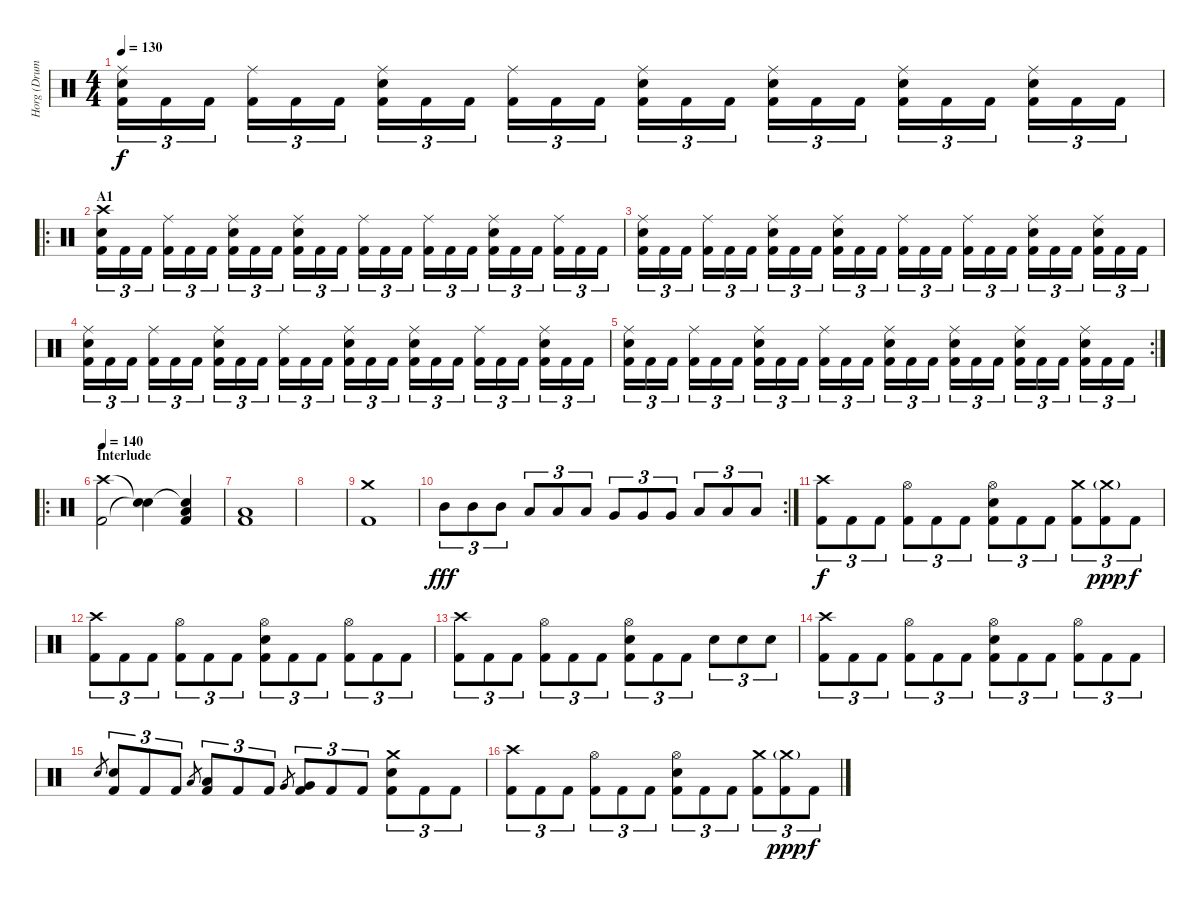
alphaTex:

\track ("Horg (Drums)" "Horg (Drum") {instrument percussion}
\staff {score}
\articulation defaults
\ts (4 4)
\tempo 130
\clef neutral
\ks c
("Ride (middle)" "Electric Snare (hit)" "Kick (hit) 2").16{tu (3 2) dy f} "Kick (hit) 2".16{tu (3 2)} "Kick (hit) 2".16{tu (3 2)} ("Ride (middle)" "Kick (hit) 2").16{tu (3 2)} "Kick (hit) 2".16{tu (3 2)} "Kick (hit) 2".16{tu (3 2)} ("Ride (middle)" "Electric Snare (hit)" "Kick (hit) 2").16{tu (3 2)} "Kick (hit) 2".16{tu (3 2)} "Kick (hit) 2".16{tu (3 2)} ("Ride (middle)" "Kick (hit) 2").16{tu (3 2)} "Kick (hit) 2".16{tu (3 2)} "Kick (hit) 2".16{tu (3 2)} ("Ride (middle)" "Electric Snare (hit)" "Kick (hit) 2").16{tu (3 2)} "Kick (hit) 2".16{tu (3 2)} "Kick (hit) 2".16{tu (3 2)} ("Ride (middle)" "Electric Snare (hit)" "Kick (hit) 2").16{tu (3 2)} "Kick (hit) 2".16{tu (3 2)} "Kick (hit) 2".16{tu (3 2)} ("Ride (middle)" "Electric Snare (hit)" "Kick (hit) 2").16{tu (3 2)} "Kick (hit) 2".16{tu (3 2)} "Kick (hit) 2".16{tu (3 2)} ("Ride (middle)" "Electric Snare (hit)" "Kick (hit) 2").16{tu (3 2)} "Kick (hit) 2".16{tu (3 2)} "Kick (hit) 2".16{tu (3 2)} |
\ro
\section ("" "A1")
("Crash high (hit)" "Electric Snare (hit)" "Kick (hit) 2").16{tu (3 2)} "Kick (hit) 2".16{tu (3 2)} "Kick (hit) 2".16{tu (3 2)} ("Ride (middle)" "Kick (hit) 2").16{tu (3 2)} "Kick (hit) 2".16{tu (3 2)} "Kick (hit) 2".16{tu (3 2)} ("Ride (middle)" "Electric Snare (hit)" "Kick (hit) 2").16{tu (3 2)} "Kick (hit) 2".16{tu (3 2)} "Kick (hit) 2".16{tu (3 2)} ("Ride (middle)" "Electric Snare (hit)" "Kick (hit) 2").16{tu (3 2)} "Kick (hit) 2".16{tu (3 2)} "Kick (hit) 2".16{tu (3 2)} ("Ride (middle)" "Kick (hit) 2").16{tu (3 2)} "Kick (hit) 2".16{tu (3 2)} "Kick (hit) 2".16{tu (3 2)} ("Ride (middle)" "Kick (hit) 2").16{tu (3 2)} "Kick (hit) 2".16{tu (3 2)} "Kick (hit) 2".16{tu (3 2)} ("Ride (middle)" "Electric Snare (hit)" "Kick (hit) 2").16{tu (3 2)} "Kick (hit) 2".16{tu (3 2)} "Kick (hit) 2".16{tu (3 2)} ("Ride (middle)" "Kick (hit) 2").16{tu (3 2)} "Kick (hit) 2".16{tu (3 2)} "Kick (hit) 2".16{tu (3 2)} |
("Ride (middle)" "Electric Snare (hit)" "Kick (hit) 2").16{tu (3 2)} "Kick (hit) 2".16{tu (3 2)} "Kick (hit) 2".16{tu (3 2)} ("Ride (middle)" "Kick (hit) 2").16{tu (3 2)} "Kick (hit) 2".16{tu (3 2)} "Kick (hit) 2".16{tu (3 2)} ("Ride (middle)" "Electric Snare (hit)" "Kick (hit) 2").16{tu (3 2)} "Kick (hit) 2".16{tu (3 2)} "Kick (hit) 2".16{tu (3 2)} ("Ride (middle)" "Electric Snare (hit)" "Kick (hit) 2").16{tu (3 2)} "Kick (hit) 2".16{tu (3 2)} "Kick (hit) 2".16{tu (3 2)} ("Ride (middle)" "Kick (hit) 2").16{tu (3 2)} "Kick (hit) 2".16{tu (3 2)} "Kick (hit) 2".16{tu (3 2)} ("Ride (middle)" "Kick (hit) 2").16{tu (3 2)} "Kick (hit) 2".16{tu (3 2)} "Kick (hit) 2".16{tu (3 2)} ("Ride (middle)" "Electric Snare (hit)" "Kick (hit) 2").16{tu (3 2)} "Kick (hit) 2".16{tu (3 2)} "Kick (hit) 2".16{tu (3 2)} ("Ride (middle)" "Electric Snare (hit)" "Kick (hit) 2").16{tu (3 2)} "Kick (hit) 2".16{tu (3 2)} "Kick (hit) 2".16{tu (3 2)} |
("Ride (middle)" "Electric Snare (hit)" "Kick (hit) 2").16{tu (3 2)} "Kick (hit) 2".16{tu (3 2)} "Kick (hit) 2".16{tu (3 2)} ("Ride (middle)" "Kick (hit) 2").16{tu (3 2)} "Kick (hit) 2".16{tu (3 2)} "Kick (hit) 2".16{tu (3 2)} ("Ride (middle)" "Electric Snare (hit)" "Kick (hit) 2").16{tu (3 2)} "Kick (hit) 2".16{tu (3 2)} "Kick (hit) 2".16{tu (3 2)} ("Ride (middle)" "Kick (hit) 2").16{tu (3 2)} "Kick (hit) 2".16{tu (3 2)} "Kick (hit) 2".16{tu (3 2)} ("Ride (middle)" "Electric Snare (hit)" "Kick (hit) 2").16{tu (3 2)} "Kick (hit) 2".16{tu (3 2)} "Kick (hit) 2".16{tu (3 2)} ("Ride (middle)" "Electric Snare (hit)" "Kick (hit) 2").16{tu (3 2)} "Kick (hit) 2".16{tu (3 2)} "Kick (hit) 2".16{tu (3 2)} ("Ride (middle)" "Kick (hit) 2").16{tu (3 2)} "Kick (hit) 2".16{tu (3 2)} "Kick (hit) 2".16{tu (3 2)} ("Ride (middle)" "Electric Snare (hit)" "Kick (hit) 2").16{tu (3 2)} "Kick (hit) 2".16{tu (3 2)} "Kick (hit) 2".16{tu (3 2)} |
\rc 2
("Ride (middle)" "Electric Snare (hit)" "Kick (hit) 2").16{tu (3 2)} "Kick (hit) 2".16{tu (3 2)} "Kick (hit) 2".16{tu (3 2)} ("Ride (middle)" "Kick (hit) 2").16{tu (3 2)} "Kick (hit) 2".16{tu (3 2)} "Kick (hit) 2".16{tu (3 2)} ("Ride (middle)" "Electric Snare (hit)" "Kick (hit) 2").16{tu (3 2)} "Kick (hit) 2".16{tu (3 2)} "Kick (hit) 2".16{tu (3 2)} ("Ride (middle)" "Kick (hit) 2").16{tu (3 2)} "Kick (hit) 2".16{tu (3 2)} "Kick (hit) 2".16{tu (3 2)} ("Ride (middle)" "Electric Snare (hit)" "Kick (hit) 2").16{tu (3 2)} "Kick (hit) 2".16{tu (3 2)} "Kick (hit) 2".16{tu (3 2)} ("Ride (middle)" "Electric Snare (hit)" "Kick (hit) 2").16{tu (3 2)} "Kick (hit) 2".16{tu (3 2)} "Kick (hit) 2".16{tu (3 2)} ("Ride (middle)" "Electric Snare (hit)" "Kick (hit) 2").16{tu (3 2)} "Kick (hit) 2".16{tu (3 2)} "Kick (hit) 2".16{tu (3 2)} ("Ride (middle)" "Electric Snare (hit)" "Kick (hit) 2").16{tu (3 2)} "Kick (hit) 2".16{tu (3 2)} "Kick (hit) 2".16{tu (3 2)} |
\ro
\section ("" "Interlude")
\tempo 140
("Crash high (hit)" "Kick (hit) 2").2 ("Snare (hit)"{t} "Snare (hit)"{t}).4 ("Snare (hit)"{t} "Low Floor Tom (hit)" "Kick (hit) 2").4 |
("Low Floor Tom (hit)" "Kick (hit) 2").1 |
|
("Crash medium (hit)" "Kick (hit) 2").1 |
\rc 2 "Mid Tom (hit)".8{tu (3 2) dy fff} "Mid Tom (hit)".8{tu (3 2)} "Mid Tom (hit)".8{tu (3 2)} "Low Tom (hit)".8{tu (3 2)} "Low Tom (hit)".8{tu (3 2)} "Low Tom (hit)".8{tu (3 2)} "Very Low Tom (hit)".8{tu (3 2)} "Very Low Tom (hit)".8{tu (3 2)} "Very Low Tom (hit)".8{tu (3 2)} "Low Floor Tom (hit)".8{tu (3 2)} "Low Floor Tom (hit)".8{tu (3 2)} "Low Floor Tom (hit)".8{tu (3 2)}
|
("Crash high (hit)" "Kick (hit) 2").8{tu (3 2) dy f} "Kick (hit) 2".8{tu (3 2)} "Kick (hit) 2".8{tu (3 2)} ("Hi-Hat (open)" "Kick (hit) 2").8{tu (3 2)} "Kick (hit) 2".8{tu (3 2)} "Kick (hit) 2".8{tu (3 2)} ("Hi-Hat (open)" "Electric Snare (hit)" "Kick (hit) 2").8{tu (3 2)} "Kick (hit) 2".8{tu (3 2)} "Kick (hit) 2".8{tu (3 2)} ("Crash medium (hit)" "Kick (hit) 2").8{tu (3 2)} ("Crash medium (hit)"{g} "Kick (hit) 2").8{tu (3 2) dy ppp} "Kick (hit) 2".8{tu (3 2) dy f} |
("Crash high (hit)" "Kick (hit) 2").8{tu (3 2)} "Kick (hit) 2".8{tu (3 2)} "Kick (hit) 2".8{tu (3 2)} ("Hi-Hat (open)" "Kick (hit) 2").8{tu (3 2)} "Kick (hit) 2".8{tu (3 2)} "Kick (hit) 2".8{tu (3 2)} ("Hi-Hat (open)" "Electric Snare (hit)" "Kick (hit) 2").8{tu (3 2)} "Kick (hit) 2".8{tu (3 2)} "Kick (hit) 2".8{tu (3 2)} ("Hi-Hat (open)" "Kick (hit) 2").8{tu (3 2)} "Kick (hit) 2".8{tu (3 2)} "Kick (hit) 2".8{tu (3 2)} |
("Crash high (hit)" "Kick (hit) 2").8{tu (3 2)} "Kick (hit) 2".8{tu (3 2)} "Kick (hit) 2".8{tu (3 2)} ("Hi-Hat (open)" "Kick (hit) 2").8{tu (3 2)} "Kick (hit) 2".8{tu (3 2)} "Kick (hit) 2".8{tu (3 2)} ("Hi-Hat (open)" "Electric Snare (hit)" "Kick (hit) 2").8{tu (3 2)} "Kick (hit) 2".8{tu (3 2)} "Kick (hit) 2".8{tu (3 2)} "Electric Snare (hit)".8{tu (3 2)} "Electric Snare (hit)".8{tu (3 2)} "Electric Snare (hit)".8{tu (3 2)} |
("Crash high (hit)" "Kick (hit) 2").8{tu (3 2)} "Kick (hit) 2".8{tu (3 2)} "Kick (hit) 2".8{tu (3 2)} ("Hi-Hat (open)" "Kick (hit) 2").8{tu (3 2)} "Kick (hit) 2".8{tu (3 2)} "Kick (hit) 2".8{tu (3 2)} ("Hi-Hat (open)" "Electric Snare (hit)" "Kick (hit) 2").8{tu (3 2)} "Kick (hit) 2".8{tu (3 2)} "Kick (hit) 2".8{tu (3 2)} ("Hi-Hat (open)" "Kick (hit) 2").8{tu (3 2)} "Kick (hit) 2".8{tu (3 2)} "Kick (hit) 2".8{tu (3 2)} |
"Electric Snare (hit)".8{gr} ("Electric Snare (hit)" "Kick (hit) 2").8{tu (3 2)} "Kick (hit) 2".8{tu (3 2)} "Kick (hit) 2".8{tu (3 2)} "Low Tom (hit)".8{gr} ("Low Tom (hit)" "Kick (hit) 2").8{tu (3 2)} "Kick (hit) 2".8{tu (3 2)} "Kick (hit) 2".8{tu (3 2)} "Very Low Tom (hit)".8{gr} ("Very Low Tom (hit)" "Kick (hit) 2").8{tu (3 2)} "Kick (hit) 2".8{tu (3 2)} "Kick (hit) 2".8{tu (3 2)} ("Crash medium (hit)" "Electric Snare (hit)" "Kick (hit) 2").8{tu (3 2)} "Kick (hit) 2".8{tu (3 2)} "Kick (hit) 2".8{tu (3 2)} |
("Crash high (hit)" "Kick (hit) 2").8{tu (3 2)} "Kick (hit) 2".8{tu (3 2)} "Kick (hit) 2".8{tu (3 2)} ("Hi-Hat (open)" "Kick (hit) 2").8{tu (3 2)} "Kick (hit) 2".8{tu (3 2)} "Kick (hit) 2".8{tu (3 2)} ("Hi-Hat (open)" "Electric Snare (hit)" "Kick (hit) 2").8{tu (3 2)} "Kick (hit) 2".8{tu (3 2)} "Kick (hit) 2".8{tu (3 2)} ("Crash medium (hit)" "Kick (hit) 2").8{tu (3 2)} ("Crash medium (hit)"{g} "Kick (hit) 2").8{tu (3 2) dy ppp} "Kick (hit) 2".8{tu (3 2) dy f}
